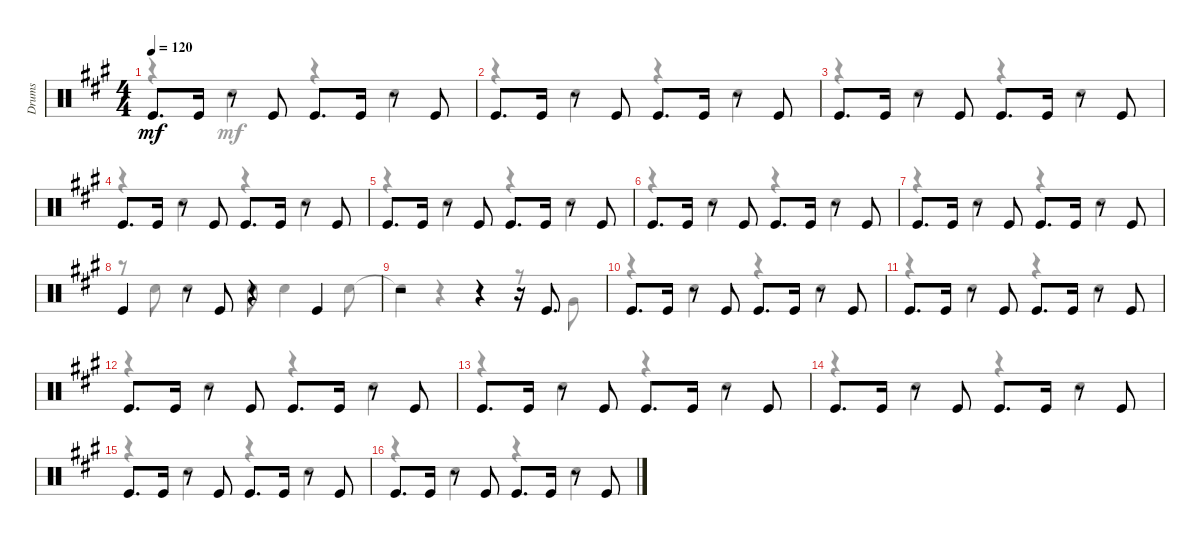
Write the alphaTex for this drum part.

\track ("Drums" "Drums") {instrument percussion}
\staff {score}
\articulation defaults
\voice
\ts (4 4)
\tempo 120
\clef neutral
\ks f#minor "Kick (hit)".8{d dy mf} "Kick (hit)".16
r.8 "Kick (hit)".8 "Kick (hit)".8{d} "Kick (hit)".16 r.8 "Kick (hit)".8 |
"Kick (hit)".8{d} "Kick (hit)".16 r.8 "Kick (hit)".8 "Kick (hit)".8{d} "Kick (hit)".16 r.8 "Kick (hit)".8 |
"Kick (hit)".8{d} "Kick (hit)".16 r.8 "Kick (hit)".8 "Kick (hit)".8{d} "Kick (hit)".16 r.8 "Kick (hit)".8 |
"Kick (hit)".8{d} "Kick (hit)".16 r.8 "Kick (hit)".8 "Kick (hit)".8{d} "Kick (hit)".16 r.8 "Kick (hit)".8 |
"Kick (hit)".8{d} "Kick (hit)".16 r.8 "Kick (hit)".8 "Kick (hit)".8{d} "Kick (hit)".16 r.8 "Kick (hit)".8 |
"Kick (hit)".8{d} "Kick (hit)".16 r.8 "Kick (hit)".8 "Kick (hit)".8{d} "Kick (hit)".16 r.8 "Kick (hit)".8 |
"Kick (hit)".8{d} "Kick (hit)".16 r.8 "Kick (hit)".8 "Kick (hit)".8{d} "Kick (hit)".16 r.8 "Kick (hit)".8 |
"Kick (hit)".4 r.8 "Kick (hit)".8 r.4 "Kick (hit)".4 |
r.2 r.4 r.16 "Kick (hit)".8{d} |
"Kick (hit)".8{d} "Kick (hit)".16 r.8 "Kick (hit)".8 "Kick (hit)".8{d} "Kick (hit)".16 r.8 "Kick (hit)".8 |
"Kick (hit)".8{d} "Kick (hit)".16 r.8 "Kick (hit)".8 "Kick (hit)".8{d} "Kick (hit)".16 r.8 "Kick (hit)".8 |
"Kick (hit)".8{d} "Kick (hit)".16 r.8 "Kick (hit)".8 "Kick (hit)".8{d} "Kick (hit)".16 r.8 "Kick (hit)".8 |
"Kick (hit)".8{d} "Kick (hit)".16 r.8 "Kick (hit)".8 "Kick (hit)".8{d} "Kick (hit)".16 r.8 "Kick (hit)".8 |
"Kick (hit)".8{d} "Kick (hit)".16 r.8 "Kick (hit)".8 "Kick (hit)".8{d} "Kick (hit)".16 r.8 "Kick (hit)".8 |
"Kick (hit)".8{d} "Kick (hit)".16 r.8 "Kick (hit)".8 "Kick (hit)".8{d} "Kick (hit)".16 r.8 "Kick (hit)".8 |
"Kick (hit)".8{d} "Kick (hit)".16 r.8 "Kick (hit)".8 "Kick (hit)".8{d} "Kick (hit)".16 r.8 "Kick (hit)".8
\voice
\clef neutral
\ottava regular
\simile none
\ks f#minor
r.4{dy mf} "Snare (hit) 2".4 r.4 "Snare (hit) 2".4 |
r.4 "Snare (hit) 2".4 r.4 "Snare (hit) 2".4 |
r.4 "Snare (hit) 2".4 r.4 "Snare (hit) 2".4 |
r.4 "Snare (hit) 2".4 r.4 "Snare (hit) 2".4 |
r.4 "Snare (hit) 2".4 r.4 "Snare (hit) 2".4 |
r.4 "Snare (hit) 2".4 r.4 "Snare (hit) 2".4 |
r.4 "Snare (hit) 2".4 r.4 "Snare (hit) 2".4 |
r.8 "Snare (hit) 2".8 "Snare (hit) 2".4 "Snare (hit) 2".8 "Snare (hit) 2".4 "Snare (hit) 2".8 |
"Snare (hit) 2"{t}.4 r.4 r.4 r.8 "Very Low Tom (hit)".8 |
r.4 "Snare (hit) 2".4 r.4 "Snare (hit) 2".4 |
r.4 "Snare (hit) 2".4 r.4 "Snare (hit) 2".4 |
r.4 "Snare (hit) 2".4 r.4 "Snare (hit) 2".4 |
r.4 "Snare (hit) 2".4 r.4 "Snare (hit) 2".4 |
r.4 "Snare (hit) 2".4 r.4 "Snare (hit) 2".4 |
r.4 "Snare (hit) 2".4 r.4 "Snare (hit) 2".4 |
r.4 "Snare (hit) 2".4 r.4 "Snare (hit) 2".4
